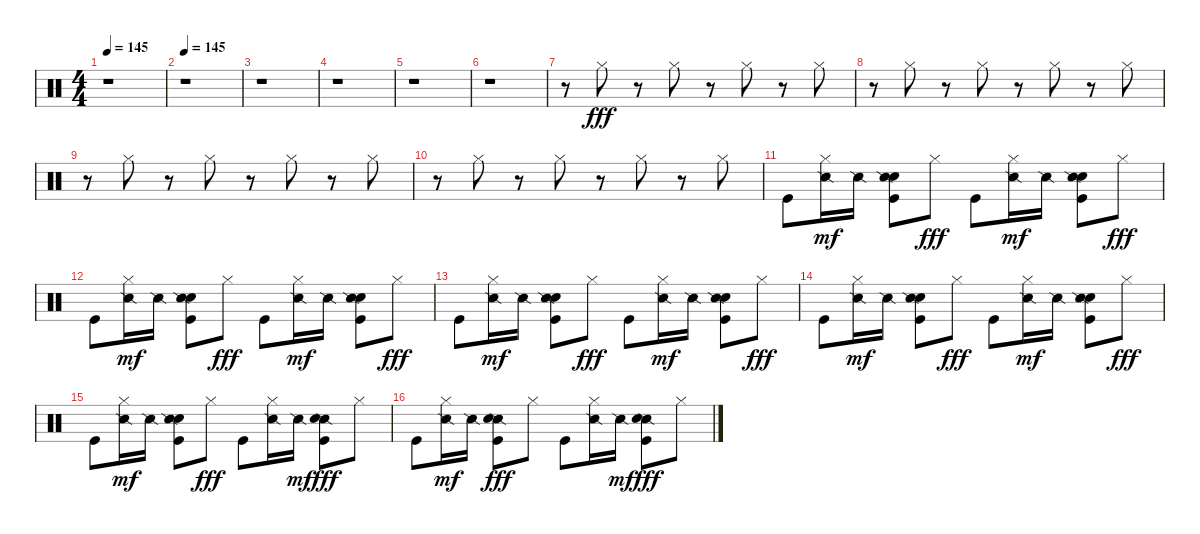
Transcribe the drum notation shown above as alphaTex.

\track "" {instrument percussion}
\staff {score}
\articulation defaults
\ts (4 4)
\tempo 145
\clef neutral
\ks c
r.1{dy fff} |
\tempo 145
r.1 |
r.1 |
r.1 |
r.1 |
r.1 |
r.8 "Hi-Hat (closed)".8 r.8 "Hi-Hat (closed)".8 r.8 "Hi-Hat (closed)".8 r.8 "Hi-Hat (closed)".8 |
r.8 "Hi-Hat (closed)".8 r.8 "Hi-Hat (closed)".8 r.8 "Hi-Hat (closed)".8 r.8 "Hi-Hat (closed)".8 |
r.8 "Hi-Hat (closed)".8 r.8 "Hi-Hat (closed)".8 r.8 "Hi-Hat (closed)".8 r.8 "Hi-Hat (closed)".8 |
r.8 "Hi-Hat (closed)".8 r.8 "Hi-Hat (closed)".8 r.8 "Hi-Hat (closed)".8 r.8 "Hi-Hat (closed)".8 |
"Kick (hit)".8 ("Hi-Hat (closed)" "Snare (side stick) 2").16{dy mf} "Snare (side stick) 2".16 ("Kick (hit)" "Hand Clap (hit)" "Snare (side stick) 2").8 "Hi-Hat (closed)".8{dy fff} "Kick (hit)".8 ("Hi-Hat (closed)" "Snare (side stick) 2").16{dy mf} "Snare (side stick) 2".16 ("Kick (hit)" "Hand Clap (hit)" "Snare (side stick) 2").8 "Hi-Hat (closed)".8{dy fff} |
"Kick (hit)".8 ("Hi-Hat (closed)" "Snare (side stick) 2").16{dy mf} "Snare (side stick) 2".16 ("Kick (hit)" "Hand Clap (hit)" "Snare (side stick) 2").8 "Hi-Hat (closed)".8{dy fff} "Kick (hit)".8 ("Hi-Hat (closed)" "Snare (side stick) 2").16{dy mf} "Snare (side stick) 2".16 ("Kick (hit)" "Hand Clap (hit)" "Snare (side stick) 2").8 "Hi-Hat (closed)".8{dy fff} |
"Kick (hit)".8 ("Hi-Hat (closed)" "Snare (side stick) 2").16{dy mf} "Snare (side stick) 2".16 ("Kick (hit)" "Hand Clap (hit)" "Snare (side stick) 2").8 "Hi-Hat (closed)".8{dy fff} "Kick (hit)".8 ("Hi-Hat (closed)" "Snare (side stick) 2").16{dy mf} "Snare (side stick) 2".16 ("Kick (hit)" "Hand Clap (hit)" "Snare (side stick) 2").8 "Hi-Hat (closed)".8{dy fff} |
"Kick (hit)".8 ("Hi-Hat (closed)" "Snare (side stick) 2").16{dy mf} "Snare (side stick) 2".16 ("Kick (hit)" "Hand Clap (hit)" "Snare (side stick) 2").8 "Hi-Hat (closed)".8{dy fff} "Kick (hit)".8 ("Hi-Hat (closed)" "Snare (side stick) 2").16{dy mf} "Snare (side stick) 2".16 ("Kick (hit)" "Hand Clap (hit)" "Snare (side stick) 2").8 "Hi-Hat (closed)".8{dy fff} |
"Kick (hit)".8 ("Hi-Hat (closed)" "Snare (side stick) 2").16{dy mf} "Snare (side stick) 2".16 ("Kick (hit)" "Hand Clap (hit)" "Snare (side stick) 2").8 "Hi-Hat (closed)".8{dy fff} "Kick (hit)".8 ("Snare (side stick) 2" "Hi-Hat (closed)").16 "Snare (side stick) 2".16{dy mf} ("Kick (hit)" "Snare (side stick) 2" "Hand Clap (hit)").8{dy fff} "Hi-Hat (closed)".8 |
"Kick (hit)".8 ("Hi-Hat (closed)" "Snare (side stick) 2").16{dy mf} "Snare (side stick) 2".16 ("Snare (side stick) 2" "Hand Clap (hit)" "Kick (hit)").8{dy fff} "Hi-Hat (closed)".8 "Kick (hit)".8 ("Snare (side stick) 2" "Hi-Hat (closed)").16 "Snare (side stick) 2".16{dy mf} ("Snare (side stick) 2" "Kick (hit)" "Hand Clap (hit)").8{dy fff} "Hi-Hat (closed)".8
